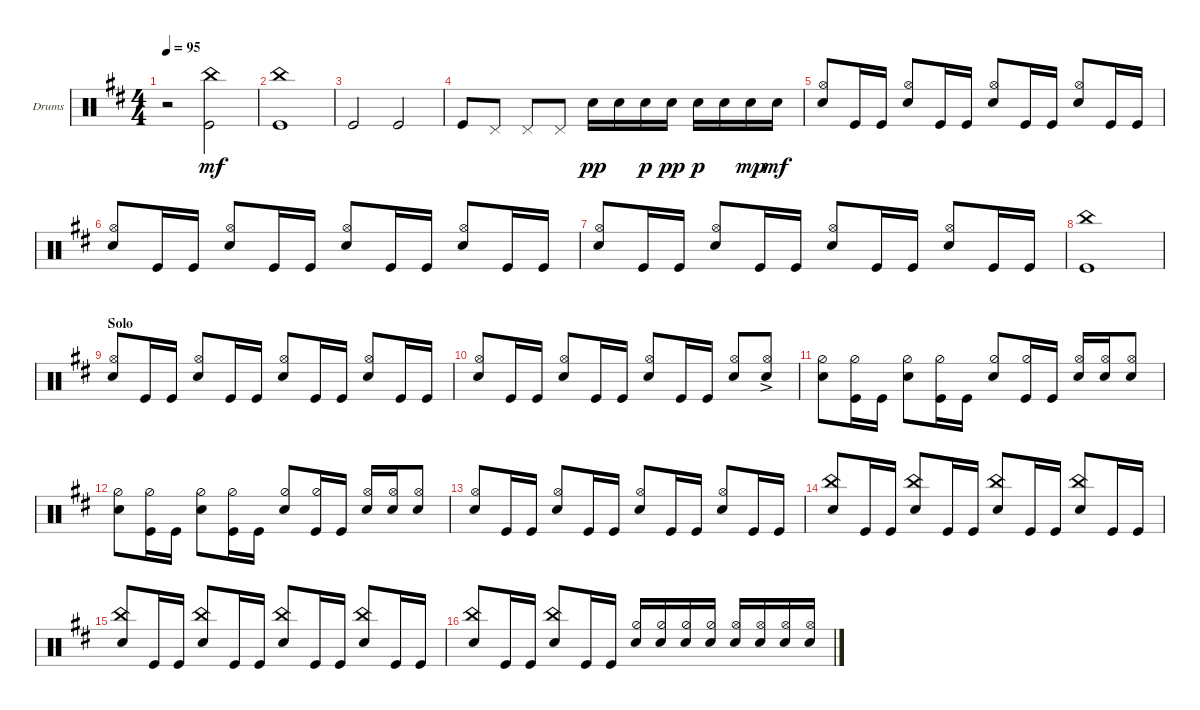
\defaultSystemsLayout 4
\bracketExtendMode groupsimilarinstruments
\firstSystemTrackNameOrientation horizontal
\otherSystemsTrackNameOrientation horizontal
\track ("Drumkit" "Drums") {instrument percussion}
\staff {score}
\articulation defaults
\ts (4 4)
\tempo 95
\clef neutral
\scale
0.405405
\ks d
r.2{dy mf} ("Kick (hit)" "China (hit)").2 |
\scale
0.189189 ("Kick (hit)" "China (hit)").1 |
\scale
0.333333 "Kick (hit)".2 "Kick (hit)".2 |
\scale
0.333333 "Kick (hit)".8 "Pedal Hi-Hat (hit)".8 "Pedal Hi-Hat (hit)".8 "Pedal Hi-Hat (hit)".8 "Snare (hit) 2".16{dy pp} "Snare (hit) 2".16 "Snare (hit) 2".16{dy p} "Snare (hit) 2".16{dy pp} "Snare (hit) 2".16{dy p} "Snare (hit) 2".16 "Snare (hit) 2".16{dy mp} "Snare (hit) 2".16{dy mf} |
\scale
0.333333 ("Snare (hit) 2" "Hi-Hat (open)").8{beam invert} "Kick (hit)".16 "Kick (hit)".16 ("Snare (hit) 2" "Hi-Hat (open)").8{beam invert} "Kick (hit)".16 "Kick (hit)".16 ("Snare (hit) 2" "Hi-Hat (open)").8{beam invert} "Kick (hit)".16 "Kick (hit)".16 ("Snare (hit) 2" "Hi-Hat (open)").8{beam invert} "Kick (hit)".16 "Kick (hit)".16 |
\scale
0.333333 ("Snare (hit) 2" "Hi-Hat (open)").8{beam invert} "Kick (hit)".16 "Kick (hit)".16 ("Snare (hit) 2" "Hi-Hat (open)").8{beam invert} "Kick (hit)".16 "Kick (hit)".16 ("Snare (hit) 2" "Hi-Hat (open)").8{beam invert} "Kick (hit)".16 "Kick (hit)".16 ("Snare (hit) 2" "Hi-Hat (open)").8{beam invert} "Kick (hit)".16 "Kick (hit)".16 |
\scale
0.333333 ("Snare (hit) 2" "Hi-Hat (open)").8{beam invert} "Kick (hit)".16 "Kick (hit)".16 ("Snare (hit) 2" "Hi-Hat (open)").8{beam invert} "Kick (hit)".16 "Kick (hit)".16 ("Snare (hit) 2" "Hi-Hat (open)").8{beam invert} "Kick (hit)".16 "Kick (hit)".16 ("Snare (hit) 2" "Hi-Hat (open)").8{beam invert} "Kick (hit)".16 "Kick (hit)".16 |
\scale
0.333333 ("Kick (hit)" "China (hit)").1 |
\section ("" "Solo")
\scale
0.333333 ("Snare (hit) 2" "Hi-Hat (open)").8{beam invert} "Kick (hit)".16 "Kick (hit)".16 ("Snare (hit) 2" "Hi-Hat (open)").8{beam invert} "Kick (hit)".16 "Kick (hit)".16 ("Snare (hit) 2" "Hi-Hat (open)").8{beam invert} "Kick (hit)".16 "Kick (hit)".16 ("Snare (hit) 2" "Hi-Hat (open)").8{beam invert} "Kick (hit)".16 "Kick (hit)".16 |
\scale
0.333333 ("Snare (hit) 2" "Hi-Hat (open)").8{beam invert} "Kick (hit)".16 "Kick (hit)".16 ("Snare (hit) 2" "Hi-Hat (open)").8{beam invert} "Kick (hit)".16 "Kick (hit)".16 ("Snare (hit) 2" "Hi-Hat (open)").8{beam invert} "Kick (hit)".16 "Kick (hit)".16 ("Snare (hit) 2" "Hi-Hat (open)").8{beam invert} ("Snare (hit) 2"{ac} "Hi-Hat (open)").8 |
\scale
0.333333 ("Snare (hit) 2" "Hi-Hat (half)").8 ("Kick (hit)" "Hi-Hat (half)").16 "Kick (hit)".16 ("Snare (hit) 2" "Hi-Hat (half)").8 ("Kick (hit)" "Hi-Hat (half)").16 "Kick (hit)".16 ("Snare (hit) 2" "Hi-Hat (half)").8 ("Kick (hit)" "Hi-Hat (half)").16 "Kick (hit)".16 ("Snare (hit) 2" "Hi-Hat (open)").16{beam invert} ("Snare (hit) 2" "Hi-Hat (open)").16 ("Snare (hit) 2" "Hi-Hat (open)").8 |
\scale
0.333333 ("Snare (hit) 2" "Hi-Hat (half)").8 ("Kick (hit)" "Hi-Hat (half)").16 "Kick (hit)".16 ("Snare (hit) 2" "Hi-Hat (half)").8 ("Kick (hit)" "Hi-Hat (half)").16 "Kick (hit)".16 ("Snare (hit) 2" "Hi-Hat (half)").8 ("Kick (hit)" "Hi-Hat (half)").16 "Kick (hit)".16 ("Snare (hit) 2" "Hi-Hat (open)").16{beam invert} ("Snare (hit) 2" "Hi-Hat (open)").16 ("Snare (hit) 2" "Hi-Hat (open)").8 |
\scale
0.333333 ("Snare (hit) 2" "Hi-Hat (open)").8{beam invert} "Kick (hit)".16 "Kick (hit)".16 ("Snare (hit) 2" "Hi-Hat (open)").8{beam invert} "Kick (hit)".16 "Kick (hit)".16 ("Snare (hit) 2" "Hi-Hat (open)").8{beam invert} "Kick (hit)".16 "Kick (hit)".16 ("Snare (hit) 2" "Hi-Hat (open)").8{beam invert} "Kick (hit)".16 "Kick (hit)".16 |
\scale
0.333333 ("Snare (hit) 2" "China (hit)").8{beam invert} "Kick (hit)".16 "Kick (hit)".16 ("Snare (hit) 2" "China (hit)").8{beam invert} "Kick (hit)".16 "Kick (hit)".16 ("Snare (hit) 2" "China (hit)").8{beam invert} "Kick (hit)".16 "Kick (hit)".16 ("Snare (hit) 2" "China (hit)").8{beam invert} "Kick (hit)".16 "Kick (hit)".16 |
\scale
0.333333 ("Snare (hit) 2" "China (hit)").8{beam invert} "Kick (hit)".16 "Kick (hit)".16 ("Snare (hit) 2" "China (hit)").8{beam invert} "Kick (hit)".16 "Kick (hit)".16 ("Snare (hit) 2" "China (hit)").8{beam invert} "Kick (hit)".16 "Kick (hit)".16 ("Snare (hit) 2" "China (hit)").8{beam invert} "Kick (hit)".16 "Kick (hit)".16 |
\scale
0.333333 ("Snare (hit) 2" "China (hit)").8{beam invert} "Kick (hit)".16 "Kick (hit)".16 ("Snare (hit) 2" "China (hit)").8{beam invert} "Kick (hit)".16 "Kick (hit)".16 ("Snare (hit) 2" "Hi-Hat (half)").16{beam invert} ("Snare (hit) 2" "Hi-Hat (half)").16 ("Snare (hit) 2" "Hi-Hat (half)").16 ("Snare (hit) 2" "Hi-Hat (half)").16 ("Snare (hit) 2" "Hi-Hat (open)").16{beam invert} ("Snare (hit) 2" "Hi-Hat (open)").16 ("Snare (hit) 2" "Hi-Hat (open)").16 ("Snare (hit) 2" "Hi-Hat (open)").16
